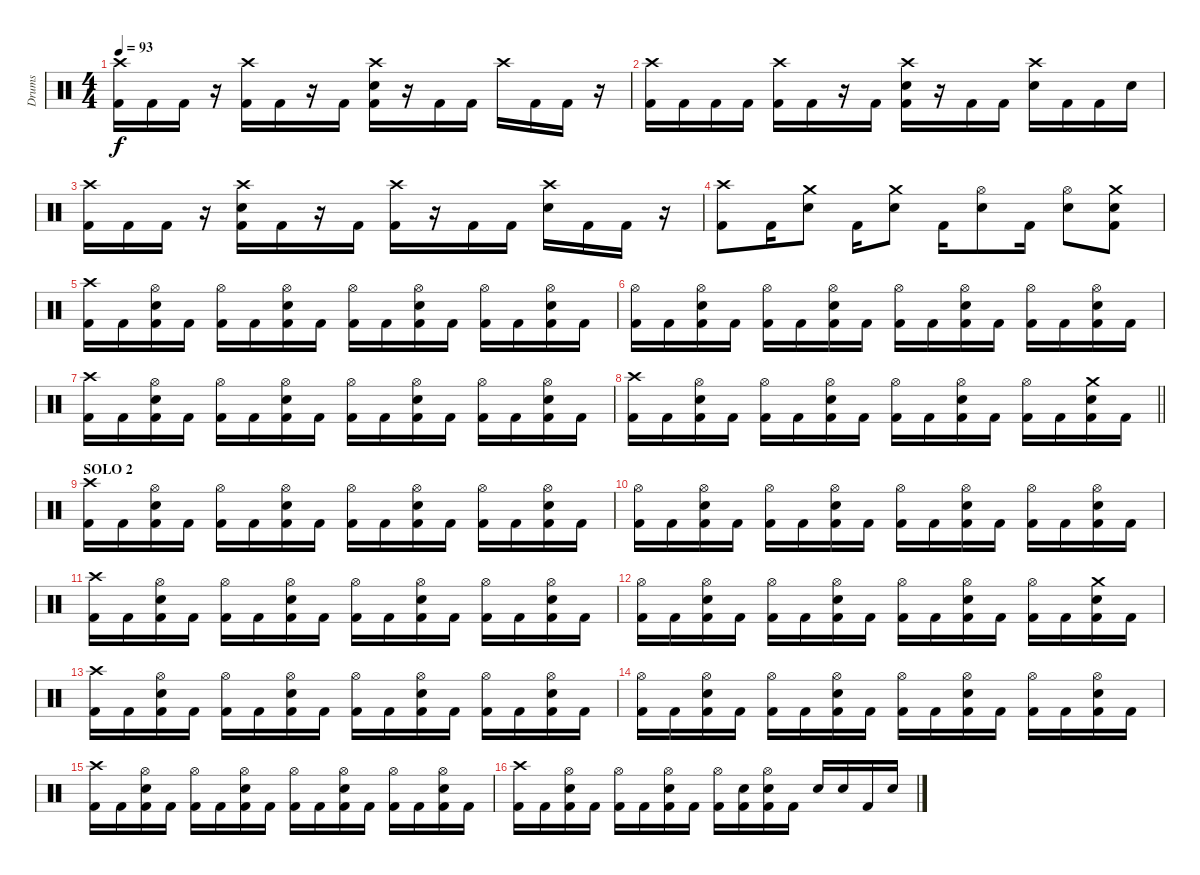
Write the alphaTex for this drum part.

\track ("Drums" "Drums") {instrument percussion}
\staff
\articulation defaults
\ts (4 4)
\tempo 93
\clef neutral
\ks c
("Crash high (hit)" "Kick (hit) 2").16{dy f} "Kick (hit) 2".16 "Kick (hit) 2".16 r.16 ("Crash high (hit)" "Kick (hit) 2").16 "Kick (hit) 2".16 r.16 "Kick (hit) 2".16 ("Crash high (hit)" "Snare (hit) 2" "Kick (hit) 2").16 r.16 "Kick (hit) 2".16 "Kick (hit) 2".16 "Crash high (hit)".16 "Kick (hit) 2".16 "Kick (hit) 2".16 r.16 |
("Crash high (hit)" "Kick (hit) 2").16 "Kick (hit) 2".16 "Kick (hit) 2".16 "Kick (hit) 2".16 ("Crash high (hit)" "Kick (hit) 2").16 "Kick (hit) 2".16 r.16 "Kick (hit) 2".16 ("Crash high (hit)" "Snare (hit) 2" "Kick (hit) 2").16 r.16 "Kick (hit) 2".16 "Kick (hit) 2".16 ("Crash high (hit)" "Snare (hit) 2").16 "Kick (hit) 2".16 "Kick (hit) 2".16 "Snare (hit) 2".16 |
("Crash high (hit)" "Kick (hit) 2").16 "Kick (hit) 2".16 "Kick (hit) 2".16 r.16 ("Crash high (hit)" "Snare (hit) 2" "Kick (hit) 2").16 "Kick (hit) 2".16 r.16 "Kick (hit) 2".16 ("Crash high (hit)" "Kick (hit) 2").16 r.16 "Kick (hit) 2".16 "Kick (hit) 2".16 ("Crash high (hit)" "Snare (hit) 2").16 "Kick (hit) 2".16 "Kick (hit) 2".16 r.16 |
("Crash high (hit)" "Kick (hit) 2").8 "Kick (hit) 2".16 ("Crash medium (hit)" "Snare (hit) 2").8 "Kick (hit) 2".16 ("Crash medium (hit)" "Snare (hit) 2").8 "Kick (hit) 2".16 ("Hi-Hat (open)" "Snare (hit) 2").8 "Kick (hit) 2".16 ("Hi-Hat (open)" "Snare (hit) 2").8 ("Crash medium (hit)" "Snare (hit) 2" "Kick (hit) 2").8 |
("Crash high (hit)" "Kick (hit) 2").16 "Kick (hit) 2".16 ("Hi-Hat (open)" "Snare (hit) 2" "Kick (hit) 2").16 "Kick (hit) 2".16 ("Hi-Hat (open)" "Kick (hit) 2").16 "Kick (hit) 2".16 ("Hi-Hat (open)" "Snare (hit) 2" "Kick (hit) 2").16 "Kick (hit) 2".16 ("Hi-Hat (open)" "Kick (hit) 2").16 "Kick (hit) 2".16 ("Hi-Hat (open)" "Snare (hit) 2" "Kick (hit) 2").16 "Kick (hit) 2".16 ("Hi-Hat (open)" "Kick (hit) 2").16 "Kick (hit) 2".16 ("Hi-Hat (open)" "Snare (hit) 2" "Kick (hit) 2").16 "Kick (hit) 2".16 |
("Hi-Hat (open)" "Kick (hit) 2").16 "Kick (hit) 2".16 ("Hi-Hat (open)" "Snare (hit) 2" "Kick (hit) 2").16 "Kick (hit) 2".16 ("Hi-Hat (open)" "Kick (hit) 2").16 "Kick (hit) 2".16 ("Hi-Hat (open)" "Snare (hit) 2" "Kick (hit) 2").16 "Kick (hit) 2".16 ("Hi-Hat (open)" "Kick (hit) 2").16 "Kick (hit) 2".16 ("Hi-Hat (open)" "Snare (hit) 2" "Kick (hit) 2").16 "Kick (hit) 2".16 ("Hi-Hat (open)" "Kick (hit) 2").16 "Kick (hit) 2".16 ("Hi-Hat (open)" "Snare (hit) 2" "Kick (hit) 2").16 "Kick (hit) 2".16 |
("Crash high (hit)" "Kick (hit) 2").16 "Kick (hit) 2".16 ("Hi-Hat (open)" "Snare (hit) 2" "Kick (hit) 2").16 "Kick (hit) 2".16 ("Hi-Hat (open)" "Kick (hit) 2").16 "Kick (hit) 2".16 ("Hi-Hat (open)" "Snare (hit) 2" "Kick (hit) 2").16 "Kick (hit) 2".16 ("Hi-Hat (open)" "Kick (hit) 2").16 "Kick (hit) 2".16 ("Hi-Hat (open)" "Snare (hit) 2" "Kick (hit) 2").16 "Kick (hit) 2".16 ("Hi-Hat (open)" "Kick (hit) 2").16 "Kick (hit) 2".16 ("Hi-Hat (open)" "Snare (hit) 2" "Kick (hit) 2").16 "Kick (hit) 2".16 |
\barLineRight lightlight
("Crash high (hit)" "Kick (hit) 2").16 "Kick (hit) 2".16 ("Hi-Hat (open)" "Snare (hit) 2" "Kick (hit) 2").16 "Kick (hit) 2".16 ("Hi-Hat (open)" "Kick (hit) 2").16 "Kick (hit) 2".16 ("Hi-Hat (open)" "Snare (hit) 2" "Kick (hit) 2").16 "Kick (hit) 2".16 ("Hi-Hat (open)" "Kick (hit) 2").16 "Kick (hit) 2".16 ("Hi-Hat (open)" "Snare (hit) 2" "Kick (hit) 2").16 "Kick (hit) 2".16 ("Hi-Hat (open)" "Kick (hit) 2").16 "Kick (hit) 2".16 ("Crash medium (hit)" "Snare (hit) 2" "Kick (hit) 2").16 "Kick (hit) 2".16 |
\section ("" "SOLO 2")
("Crash high (hit)" "Kick (hit) 2").16{volume 13} "Kick (hit) 2".16 ("Hi-Hat (open)" "Snare (hit) 2" "Kick (hit) 2").16 "Kick (hit) 2".16 ("Hi-Hat (open)" "Kick (hit) 2").16 "Kick (hit) 2".16 ("Hi-Hat (open)" "Snare (hit) 2" "Kick (hit) 2").16 "Kick (hit) 2".16 ("Hi-Hat (open)" "Kick (hit) 2").16 "Kick (hit) 2".16 ("Hi-Hat (open)" "Snare (hit) 2" "Kick (hit) 2").16 "Kick (hit) 2".16 ("Hi-Hat (open)" "Kick (hit) 2").16 "Kick (hit) 2".16 ("Hi-Hat (open)" "Snare (hit) 2" "Kick (hit) 2").16 "Kick (hit) 2".16 |
("Hi-Hat (open)" "Kick (hit) 2").16 "Kick (hit) 2".16 ("Hi-Hat (open)" "Snare (hit) 2" "Kick (hit) 2").16 "Kick (hit) 2".16 ("Hi-Hat (open)" "Kick (hit) 2").16 "Kick (hit) 2".16 ("Hi-Hat (open)" "Snare (hit) 2" "Kick (hit) 2").16 "Kick (hit) 2".16 ("Hi-Hat (open)" "Kick (hit) 2").16 "Kick (hit) 2".16 ("Hi-Hat (open)" "Snare (hit) 2" "Kick (hit) 2").16 "Kick (hit) 2".16 ("Hi-Hat (open)" "Kick (hit) 2").16 "Kick (hit) 2".16 ("Hi-Hat (open)" "Snare (hit) 2" "Kick (hit) 2").16 "Kick (hit) 2".16 |
("Crash high (hit)" "Kick (hit) 2").16 "Kick (hit) 2".16 ("Hi-Hat (open)" "Snare (hit) 2" "Kick (hit) 2").16 "Kick (hit) 2".16 ("Hi-Hat (open)" "Kick (hit) 2").16 "Kick (hit) 2".16 ("Hi-Hat (open)" "Snare (hit) 2" "Kick (hit) 2").16 "Kick (hit) 2".16 ("Hi-Hat (open)" "Kick (hit) 2").16 "Kick (hit) 2".16 ("Hi-Hat (open)" "Snare (hit) 2" "Kick (hit) 2").16 "Kick (hit) 2".16 ("Hi-Hat (open)" "Kick (hit) 2").16 "Kick (hit) 2".16 ("Hi-Hat (open)" "Snare (hit) 2" "Kick (hit) 2").16 "Kick (hit) 2".16 |
("Hi-Hat (open)" "Kick (hit) 2").16 "Kick (hit) 2".16 ("Hi-Hat (open)" "Snare (hit) 2" "Kick (hit) 2").16 "Kick (hit) 2".16 ("Hi-Hat (open)" "Kick (hit) 2").16 "Kick (hit) 2".16 ("Hi-Hat (open)" "Snare (hit) 2" "Kick (hit) 2").16 "Kick (hit) 2".16 ("Hi-Hat (open)" "Kick (hit) 2").16 "Kick (hit) 2".16 ("Hi-Hat (open)" "Snare (hit) 2" "Kick (hit) 2").16 "Kick (hit) 2".16 ("Hi-Hat (open)" "Kick (hit) 2").16 "Kick (hit) 2".16 ("Crash medium (hit)" "Snare (hit) 2" "Kick (hit) 2").16 "Kick (hit) 2".16 |
("Crash high (hit)" "Kick (hit) 2").16 "Kick (hit) 2".16 ("Hi-Hat (open)" "Snare (hit) 2" "Kick (hit) 2").16 "Kick (hit) 2".16 ("Hi-Hat (open)" "Kick (hit) 2").16 "Kick (hit) 2".16 ("Hi-Hat (open)" "Snare (hit) 2" "Kick (hit) 2").16 "Kick (hit) 2".16 ("Hi-Hat (open)" "Kick (hit) 2").16 "Kick (hit) 2".16 ("Hi-Hat (open)" "Snare (hit) 2" "Kick (hit) 2").16 "Kick (hit) 2".16 ("Hi-Hat (open)" "Kick (hit) 2").16 "Kick (hit) 2".16 ("Hi-Hat (open)" "Snare (hit) 2" "Kick (hit) 2").16 "Kick (hit) 2".16 |
("Hi-Hat (open)" "Kick (hit) 2").16 "Kick (hit) 2".16 ("Hi-Hat (open)" "Snare (hit) 2" "Kick (hit) 2").16 "Kick (hit) 2".16 ("Hi-Hat (open)" "Kick (hit) 2").16 "Kick (hit) 2".16 ("Hi-Hat (open)" "Snare (hit) 2" "Kick (hit) 2").16 "Kick (hit) 2".16 ("Hi-Hat (open)" "Kick (hit) 2").16 "Kick (hit) 2".16 ("Hi-Hat (open)" "Snare (hit) 2" "Kick (hit) 2").16 "Kick (hit) 2".16 ("Hi-Hat (open)" "Kick (hit) 2").16 "Kick (hit) 2".16 ("Hi-Hat (open)" "Snare (hit) 2" "Kick (hit) 2").16 "Kick (hit) 2".16 |
("Crash high (hit)" "Kick (hit) 2").16 "Kick (hit) 2".16 ("Hi-Hat (open)" "Snare (hit) 2" "Kick (hit) 2").16 "Kick (hit) 2".16 ("Hi-Hat (open)" "Kick (hit) 2").16 "Kick (hit) 2".16 ("Hi-Hat (open)" "Snare (hit) 2" "Kick (hit) 2").16 "Kick (hit) 2".16 ("Hi-Hat (open)" "Kick (hit) 2").16 "Kick (hit) 2".16 ("Hi-Hat (open)" "Snare (hit) 2" "Kick (hit) 2").16 "Kick (hit) 2".16 ("Hi-Hat (open)" "Kick (hit) 2").16 "Kick (hit) 2".16 ("Hi-Hat (open)" "Snare (hit) 2" "Kick (hit) 2").16 "Kick (hit) 2".16 |
("Crash high (hit)" "Kick (hit) 2").16 "Kick (hit) 2".16 ("Hi-Hat (open)" "Snare (hit) 2" "Kick (hit) 2").16 "Kick (hit) 2".16 ("Hi-Hat (open)" "Kick (hit) 2").16 "Kick (hit) 2".16 ("Hi-Hat (open)" "Snare (hit) 2" "Kick (hit) 2").16 "Kick (hit) 2".16 ("Hi-Hat (open)" "Kick (hit) 2").16 ("Snare (hit) 2" "Kick (hit) 2").16 ("Hi-Hat (open)" "Snare (hit) 2" "Kick (hit) 2").16 "Kick (hit) 2".16 "Snare (hit) 2".16 "Snare (hit) 2".16 "Kick (hit) 2".16 "Snare (hit) 2".16
